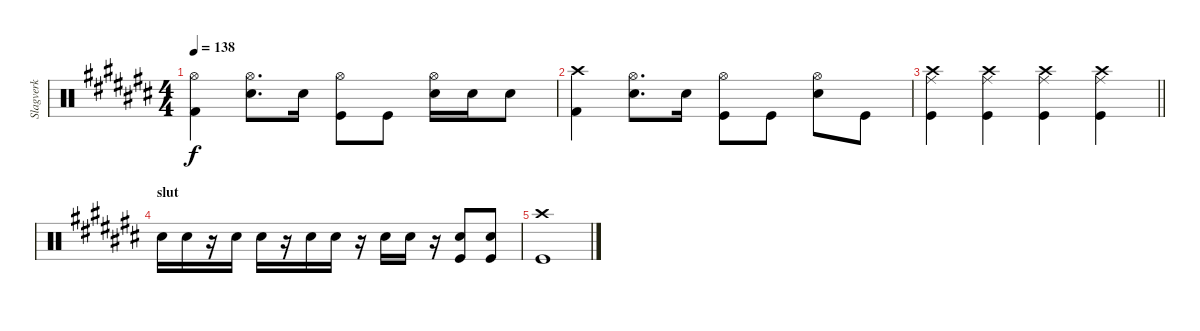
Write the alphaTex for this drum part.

\track ("Slagverk" "Slagverk") {instrument percussion}
\staff {score}
\articulation defaults
\ts (4 4)
\tempo 138
\clef neutral
\ks c#
("Hi-Hat (open)" "Kick (hit) 2").4{dy f} ("Hi-Hat (open)" "Snare (hit) 2").8{d} "Snare (hit) 2".16 ("Hi-Hat (open)" "Kick (hit)").8 "Kick (hit)".8 ("Hi-Hat (open)" "Snare (hit) 2").16 "Snare (hit) 2".16 "Snare (hit) 2".8 |
("Crash high (hit)" "Kick (hit) 2").4 ("Hi-Hat (open)" "Snare (hit) 2").8{d} "Snare (hit) 2".16 ("Hi-Hat (open)" "Kick (hit)").8 "Kick (hit)".8 ("Hi-Hat (open)" "Snare (hit) 2").8 "Kick (hit)".8 |
\barLineRight lightlight
("Crash high (hit)" "Ride (middle)" "Kick (hit)").4 ("Crash high (hit)" "Ride (middle)" "Kick (hit)").4 ("Crash high (hit)" "Ride (middle)" "Kick (hit)").4 ("Crash high (hit)" "Ride (middle)" "Kick (hit)").4 |
\section ("" "slut")
"Snare (hit) 2".16 "Snare (hit) 2".16 r.16 "Snare (hit) 2".16 "Snare (hit) 2".16 r.16 "Snare (hit) 2".16 "Snare (hit) 2".16 r.16 "Snare (hit) 2".16 "Snare (hit) 2".16 r.16 ("Snare (hit) 2" "Kick (hit)").8 ("Snare (hit) 2" "Kick (hit)").8 |
("Crash high (hit)" "Kick (hit)").1
